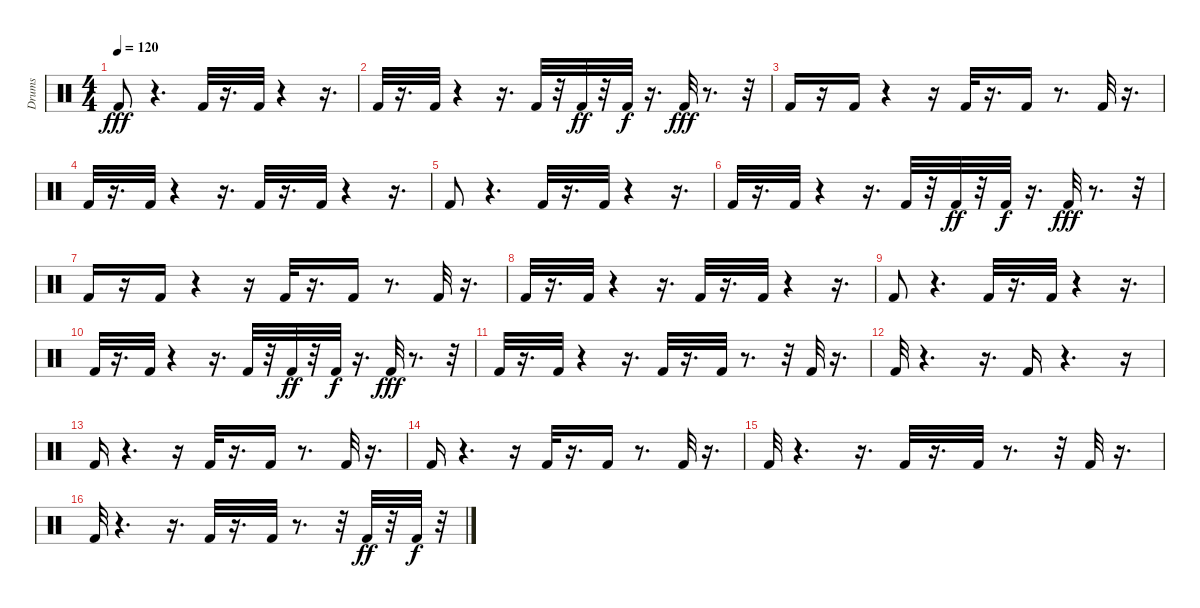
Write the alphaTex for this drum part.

\track ("Drums" "Drums") {instrument percussion}
\staff {score}
\articulation defaults
\ts (4 4)
\tempo 120
\clef neutral
\ks c "Kick (hit) 2".8{dy fff}
r.4{d} "Kick (hit) 2".32 r.16{d} "Kick (hit) 2".32 r.4 r.16{d} |
"Kick (hit) 2".32 r.16{d} "Kick (hit) 2".32 r.4 r.16{d} "Kick (hit) 2".32 r.32 "Kick (hit) 2".32{dy ff} r.32 "Kick (hit) 2".32{dy f} r.16{d} "Kick (hit) 2".32{dy fff} r.8{d} r.32 |
"Kick (hit) 2".16 r.16 "Kick (hit) 2".16 r.4 r.16 "Kick (hit) 2".32 r.16{d} "Kick (hit) 2".16 r.8{d} "Kick (hit) 2".32 r.16{d} |
"Kick (hit) 2".32 r.16{d} "Kick (hit) 2".32 r.4 r.16{d} "Kick (hit) 2".32 r.16{d} "Kick (hit) 2".32 r.4 r.16{d} |
"Kick (hit) 2".8 r.4{d} "Kick (hit) 2".32 r.16{d} "Kick (hit) 2".32 r.4 r.16{d} |
"Kick (hit) 2".32 r.16{d} "Kick (hit) 2".32 r.4 r.16{d} "Kick (hit) 2".32 r.32 "Kick (hit) 2".32{dy ff} r.32 "Kick (hit) 2".32{dy f} r.16{d} "Kick (hit) 2".32{dy fff} r.8{d} r.32 |
"Kick (hit) 2".16 r.16 "Kick (hit) 2".16 r.4 r.16 "Kick (hit) 2".32 r.16{d} "Kick (hit) 2".16 r.8{d} "Kick (hit) 2".32 r.16{d} |
"Kick (hit) 2".32 r.16{d} "Kick (hit) 2".32 r.4 r.16{d} "Kick (hit) 2".32 r.16{d} "Kick (hit) 2".32 r.4 r.16{d} |
"Kick (hit) 2".8 r.4{d} "Kick (hit) 2".32 r.16{d} "Kick (hit) 2".32 r.4 r.16{d} |
"Kick (hit) 2".32 r.16{d} "Kick (hit) 2".32 r.4 r.16{d} "Kick (hit) 2".32 r.32 "Kick (hit) 2".32{dy ff} r.32 "Kick (hit) 2".32{dy f} r.16{d} "Kick (hit) 2".32{dy fff} r.8{d} r.32 |
"Kick (hit) 2".32 r.16{d} "Kick (hit) 2".32 r.4 r.16{d} "Kick (hit) 2".32 r.16{d} "Kick (hit) 2".32 r.8{d} r.32 "Kick (hit) 2".32 r.16{d} |
"Kick (hit) 2".32 r.4{d} r.16{d} "Kick (hit) 2".16 r.4{d} r.16 |
"Kick (hit) 2".16 r.4{d} r.16 "Kick (hit) 2".32 r.16{d} "Kick (hit) 2".16 r.8{d} "Kick (hit) 2".32 r.16{d} |
"Kick (hit) 2".16 r.4{d} r.16 "Kick (hit) 2".32 r.16{d} "Kick (hit) 2".16 r.8{d} "Kick (hit) 2".32 r.16{d} |
"Kick (hit) 2".32 r.4{d} r.16{d} "Kick (hit) 2".32 r.16{d} "Kick (hit) 2".32 r.8{d} r.32 "Kick (hit) 2".32 r.16{d} |
"Kick (hit) 2".32 r.4{d} r.16{d} "Kick (hit) 2".32 r.16{d} "Kick (hit) 2".32 r.8{d} r.32 "Kick (hit) 2".32{dy ff} r.32 "Kick (hit) 2".32{dy f} r.32
